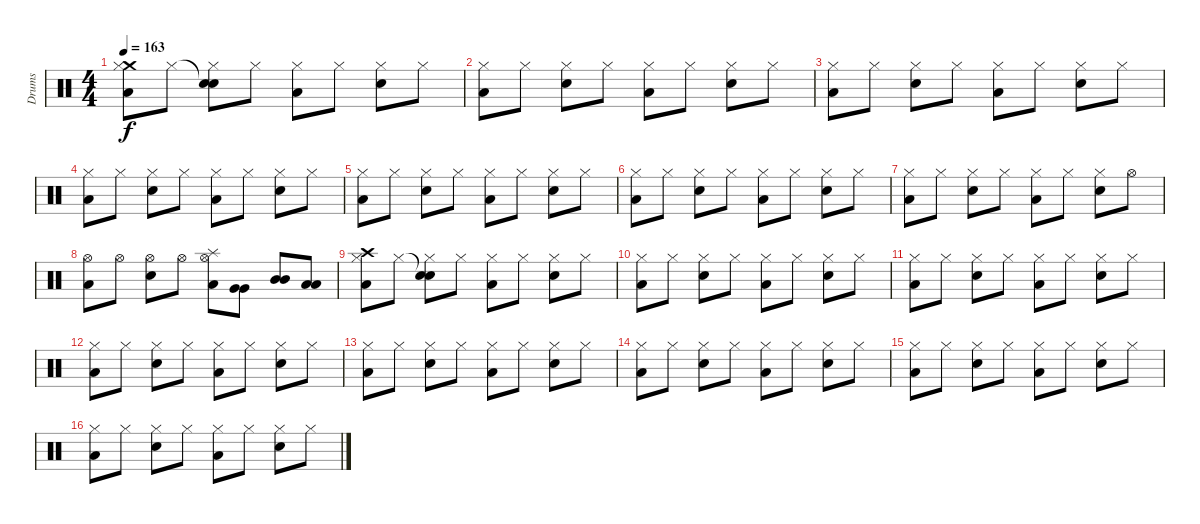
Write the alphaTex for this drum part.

\track ("Drums" "Drums") {instrument percussion}
\staff {score}
\articulation defaults
\ts (4 4)
\tempo 163
\clef neutral
\ks c
("Crash medium (hit)" "Low Tom (hit)" "Hi-Hat (closed)").8{dy f} "Hi-Hat (closed)".8 ("Snare (hit)"{t} "Snare (hit) 2" "Hi-Hat (closed)").8 "Hi-Hat (closed)".8 ("Low Tom (hit)" "Hi-Hat (closed)").8 "Hi-Hat (closed)".8 ("Snare (hit) 2" "Hi-Hat (closed)").8 "Hi-Hat (closed)".8 |
("Low Tom (hit)" "Hi-Hat (closed)").8 "Hi-Hat (closed)".8 ("Snare (hit) 2" "Hi-Hat (closed)").8 "Hi-Hat (closed)".8 ("Low Tom (hit)" "Hi-Hat (closed)").8 "Hi-Hat (closed)".8 ("Snare (hit) 2" "Hi-Hat (closed)").8 "Hi-Hat (closed)".8 |
("Low Tom (hit)" "Hi-Hat (closed)").8 "Hi-Hat (closed)".8 ("Snare (hit) 2" "Hi-Hat (closed)").8 "Hi-Hat (closed)".8 ("Low Tom (hit)" "Hi-Hat (closed)").8 "Hi-Hat (closed)".8 ("Snare (hit) 2" "Hi-Hat (closed)").8 "Hi-Hat (closed)".8 |
("Low Tom (hit)" "Hi-Hat (closed)").8 "Hi-Hat (closed)".8 ("Snare (hit) 2" "Hi-Hat (closed)").8 "Hi-Hat (closed)".8 ("Low Tom (hit)" "Hi-Hat (closed)").8 "Hi-Hat (closed)".8 ("Snare (hit) 2" "Hi-Hat (closed)").8 "Hi-Hat (closed)".8 |
("Low Tom (hit)" "Hi-Hat (closed)").8 "Hi-Hat (closed)".8 ("Snare (hit) 2" "Hi-Hat (closed)").8 "Hi-Hat (closed)".8 ("Low Tom (hit)" "Hi-Hat (closed)").8 "Hi-Hat (closed)".8 ("Snare (hit) 2" "Hi-Hat (closed)").8 "Hi-Hat (closed)".8 |
("Low Tom (hit)" "Hi-Hat (closed)").8 "Hi-Hat (closed)".8 ("Snare (hit) 2" "Hi-Hat (closed)").8 "Hi-Hat (closed)".8 ("Low Tom (hit)" "Hi-Hat (closed)").8 "Hi-Hat (closed)".8 ("Snare (hit) 2" "Hi-Hat (closed)").8 "Hi-Hat (closed)".8 |
("Low Tom (hit)" "Hi-Hat (closed)").8 "Hi-Hat (closed)".8 ("Snare (hit) 2" "Hi-Hat (closed)").8 "Hi-Hat (closed)".8 ("Low Tom (hit)" "Hi-Hat (closed)").8 "Hi-Hat (closed)".8 ("Snare (hit) 2" "Hi-Hat (closed)").8 "Hi-Hat (open)".8 |
("Low Tom (hit)" "Hi-Hat (open)").8 "Hi-Hat (open)".8 ("Snare (hit) 2" "Hi-Hat (open)").8 "Hi-Hat (open)".8 ("Splash (hit)" "Low Tom (hit)" "Hi-Hat (open)").8 ("Very Low Tom (hit)" "Very Low Tom (hit)").8 ("Mid Tom (hit)" "Mid Tom (hit)").8 ("Low Tom (hit)" "Low Tom (hit)").8 |
("Crash high (hit)" "Low Tom (hit)" "Hi-Hat (closed)").8 "Hi-Hat (closed)".8 ("Snare (hit)"{t} "Snare (hit) 2" "Hi-Hat (closed)").8 "Hi-Hat (closed)".8 ("Low Tom (hit)" "Hi-Hat (closed)").8 "Hi-Hat (closed)".8 ("Snare (hit) 2" "Hi-Hat (closed)").8 "Hi-Hat (closed)".8 |
("Low Tom (hit)" "Hi-Hat (closed)").8 "Hi-Hat (closed)".8 ("Snare (hit) 2" "Hi-Hat (closed)").8 "Hi-Hat (closed)".8 ("Low Tom (hit)" "Hi-Hat (closed)").8 "Hi-Hat (closed)".8 ("Snare (hit) 2" "Hi-Hat (closed)").8 "Hi-Hat (closed)".8 |
("Low Tom (hit)" "Hi-Hat (closed)").8 "Hi-Hat (closed)".8 ("Snare (hit) 2" "Hi-Hat (closed)").8 "Hi-Hat (closed)".8 ("Low Tom (hit)" "Hi-Hat (closed)").8 "Hi-Hat (closed)".8 ("Snare (hit) 2" "Hi-Hat (closed)").8 "Hi-Hat (closed)".8 |
("Low Tom (hit)" "Hi-Hat (closed)").8 "Hi-Hat (closed)".8 ("Snare (hit) 2" "Hi-Hat (closed)").8 "Hi-Hat (closed)".8 ("Low Tom (hit)" "Hi-Hat (closed)").8 "Hi-Hat (closed)".8 ("Snare (hit) 2" "Hi-Hat (closed)").8 "Hi-Hat (closed)".8 |
("Low Tom (hit)" "Hi-Hat (closed)").8 "Hi-Hat (closed)".8 ("Snare (hit) 2" "Hi-Hat (closed)").8 "Hi-Hat (closed)".8 ("Low Tom (hit)" "Hi-Hat (closed)").8 "Hi-Hat (closed)".8 ("Snare (hit) 2" "Hi-Hat (closed)").8 "Hi-Hat (closed)".8 |
("Low Tom (hit)" "Hi-Hat (closed)").8 "Hi-Hat (closed)".8 ("Snare (hit) 2" "Hi-Hat (closed)").8 "Hi-Hat (closed)".8 ("Low Tom (hit)" "Hi-Hat (closed)").8 "Hi-Hat (closed)".8 ("Snare (hit) 2" "Hi-Hat (closed)").8 "Hi-Hat (closed)".8 |
("Low Tom (hit)" "Hi-Hat (closed)").8 "Hi-Hat (closed)".8 ("Snare (hit) 2" "Hi-Hat (closed)").8 "Hi-Hat (closed)".8 ("Low Tom (hit)" "Hi-Hat (closed)").8 "Hi-Hat (closed)".8 ("Snare (hit) 2" "Hi-Hat (closed)").8 "Hi-Hat (closed)".8 |
("Low Tom (hit)" "Hi-Hat (closed)").8 "Hi-Hat (closed)".8 ("Snare (hit) 2" "Hi-Hat (closed)").8 "Hi-Hat (closed)".8 ("Low Tom (hit)" "Hi-Hat (closed)").8 "Hi-Hat (closed)".8 ("Snare (hit) 2" "Hi-Hat (closed)").8 "Hi-Hat (closed)".8
